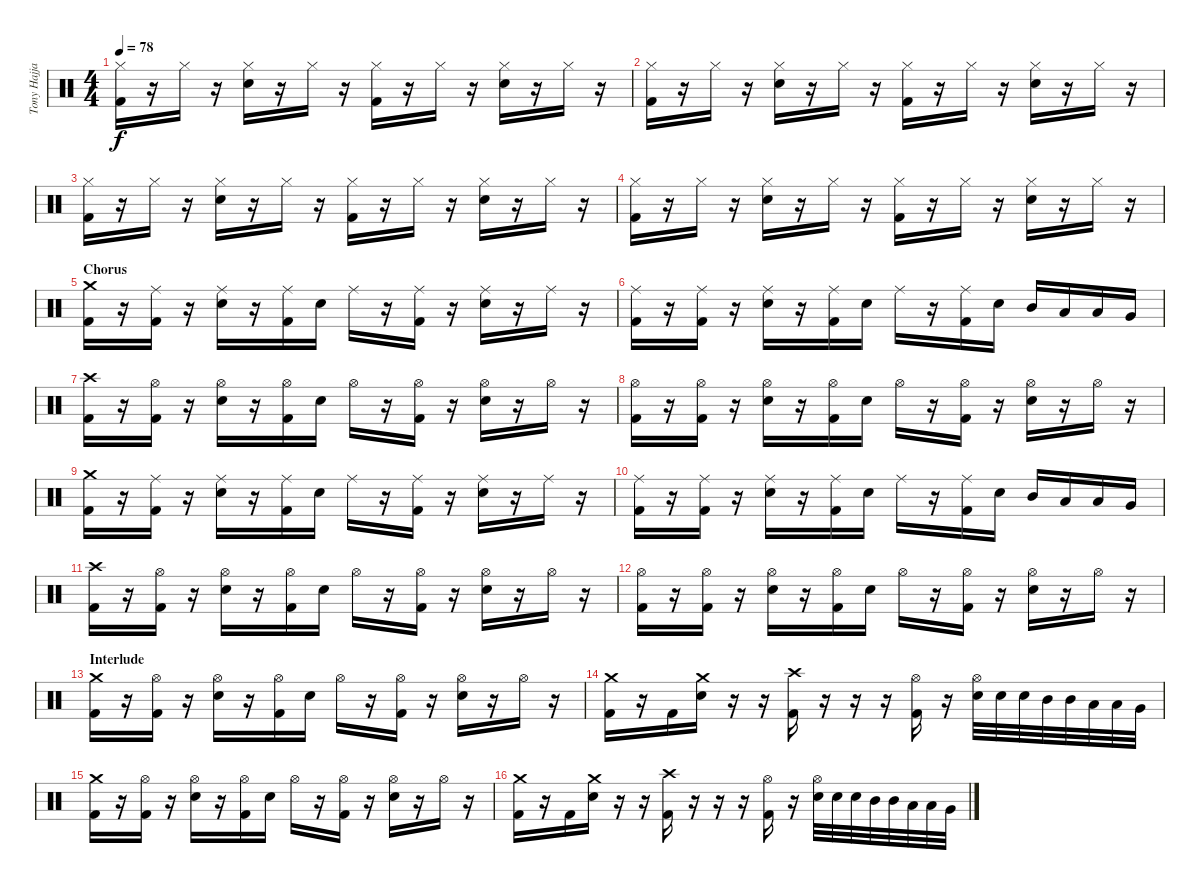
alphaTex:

\track ("Tony Hajjar" "Tony Hajja") {instrument percussion}
\staff {score}
\articulation defaults
\ts (4 4)
\tempo 78
\clef neutral
\ks c
("Hi-Hat (closed)" "Kick (hit) 2").16{dy f} r.16 "Hi-Hat (closed)".16 r.16 ("Hi-Hat (closed)" "Electric Snare (hit)").16 r.16 "Hi-Hat (closed)".16 r.16 ("Hi-Hat (closed)" "Kick (hit) 2").16 r.16 "Hi-Hat (closed)".16 r.16 ("Hi-Hat (closed)" "Electric Snare (hit)").16 r.16 "Hi-Hat (closed)".16 r.16 |
("Hi-Hat (closed)" "Kick (hit) 2").16 r.16 "Hi-Hat (closed)".16 r.16 ("Hi-Hat (closed)" "Electric Snare (hit)").16 r.16 "Hi-Hat (closed)".16 r.16 ("Hi-Hat (closed)" "Kick (hit) 2").16 r.16 "Hi-Hat (closed)".16 r.16 ("Hi-Hat (closed)" "Electric Snare (hit)").16 r.16 "Hi-Hat (closed)".16 r.16 |
("Hi-Hat (closed)" "Kick (hit) 2").16 r.16 "Hi-Hat (closed)".16 r.16 ("Hi-Hat (closed)" "Electric Snare (hit)").16 r.16 "Hi-Hat (closed)".16 r.16 ("Hi-Hat (closed)" "Kick (hit) 2").16 r.16 "Hi-Hat (closed)".16 r.16 ("Hi-Hat (closed)" "Electric Snare (hit)").16 r.16 "Hi-Hat (closed)".16 r.16 |
("Hi-Hat (closed)" "Kick (hit) 2").16 r.16 "Hi-Hat (closed)".16 r.16 ("Hi-Hat (closed)" "Electric Snare (hit)").16 r.16 "Hi-Hat (closed)".16 r.16 ("Hi-Hat (closed)" "Kick (hit) 2").16 r.16 "Hi-Hat (closed)".16 r.16 ("Hi-Hat (closed)" "Electric Snare (hit)").16 r.16 "Hi-Hat (closed)".16 r.16 |
\section ("" "Chorus")
("Crash medium (hit)" "Kick (hit) 2").16 r.16 ("Ride (middle)" "Kick (hit) 2").16 r.16 ("Ride (middle)" "Electric Snare (hit)").16 r.16 ("Ride (middle)" "Kick (hit) 2").16 "Electric Snare (hit)".16 "Ride (middle)".16 r.16 ("Ride (middle)" "Kick (hit) 2").16 r.16 ("Ride (middle)" "Electric Snare (hit)").16 r.16 "Ride (middle)".16 r.16 |
("Ride (middle)" "Kick (hit) 2").16 r.16 ("Ride (middle)" "Kick (hit) 2").16 r.16 ("Ride (middle)" "Electric Snare (hit)").16 r.16 ("Ride (middle)" "Kick (hit) 2").16 "Electric Snare (hit)".16 "Ride (middle)".16 r.16 ("Ride (middle)" "Kick (hit) 2").16 "Electric Snare (hit)".16 "Mid Tom (hit)".16 "Low Tom (hit)".16 "Low Tom (hit)".16 "Very Low Tom (hit)".16 |
("Crash high (hit)" "Kick (hit) 2").16 r.16 ("Hi-Hat (open)" "Kick (hit) 2").16 r.16 ("Hi-Hat (open)" "Electric Snare (hit)").16 r.16 ("Hi-Hat (open)" "Kick (hit) 2").16 "Electric Snare (hit)".16 "Hi-Hat (open)".16 r.16 ("Hi-Hat (open)" "Kick (hit) 2").16 r.16 ("Hi-Hat (open)" "Electric Snare (hit)").16 r.16 "Hi-Hat (open)".16 r.16 |
("Hi-Hat (open)" "Kick (hit) 2").16 r.16 ("Hi-Hat (open)" "Kick (hit) 2").16 r.16 ("Hi-Hat (open)" "Electric Snare (hit)").16 r.16 ("Hi-Hat (open)" "Kick (hit) 2").16 "Electric Snare (hit)".16 "Hi-Hat (open)".16 r.16 ("Hi-Hat (open)" "Kick (hit) 2").16 r.16 ("Hi-Hat (open)" "Electric Snare (hit)").16 r.16 "Hi-Hat (open)".16 r.16 |
("Crash medium (hit)" "Kick (hit) 2").16 r.16 ("Ride (middle)" "Kick (hit) 2").16 r.16 ("Ride (middle)" "Electric Snare (hit)").16 r.16 ("Ride (middle)" "Kick (hit) 2").16 "Electric Snare (hit)".16 "Ride (middle)".16 r.16 ("Ride (middle)" "Kick (hit) 2").16 r.16 ("Ride (middle)" "Electric Snare (hit)").16 r.16 "Ride (middle)".16 r.16 |
("Ride (middle)" "Kick (hit) 2").16 r.16 ("Ride (middle)" "Kick (hit) 2").16 r.16 ("Ride (middle)" "Electric Snare (hit)").16 r.16 ("Ride (middle)" "Kick (hit) 2").16 "Electric Snare (hit)".16 "Ride (middle)".16 r.16 ("Ride (middle)" "Kick (hit) 2").16 "Electric Snare (hit)".16 "Mid Tom (hit)".16 "Low Tom (hit)".16 "Low Tom (hit)".16 "Very Low Tom (hit)".16 |
("Crash high (hit)" "Kick (hit) 2").16 r.16 ("Hi-Hat (open)" "Kick (hit) 2").16 r.16 ("Hi-Hat (open)" "Electric Snare (hit)").16 r.16 ("Hi-Hat (open)" "Kick (hit) 2").16 "Electric Snare (hit)".16 "Hi-Hat (open)".16 r.16 ("Hi-Hat (open)" "Kick (hit) 2").16 r.16 ("Hi-Hat (open)" "Electric Snare (hit)").16 r.16 "Hi-Hat (open)".16 r.16 |
("Hi-Hat (open)" "Kick (hit) 2").16 r.16 ("Hi-Hat (open)" "Kick (hit) 2").16 r.16 ("Hi-Hat (open)" "Electric Snare (hit)").16 r.16 ("Hi-Hat (open)" "Kick (hit) 2").16 "Electric Snare (hit)".16 "Hi-Hat (open)".16 r.16 ("Hi-Hat (open)" "Kick (hit) 2").16 r.16 ("Hi-Hat (open)" "Electric Snare (hit)").16 r.16 "Hi-Hat (open)".16 r.16 |
\section ("" "Interlude")
("Crash medium (hit)" "Kick (hit) 2").16 r.16 ("Hi-Hat (open)" "Kick (hit) 2").16 r.16 ("Hi-Hat (open)" "Electric Snare (hit)").16 r.16 ("Hi-Hat (open)" "Kick (hit) 2").16 "Electric Snare (hit)".16 "Hi-Hat (open)".16 r.16 ("Hi-Hat (open)" "Kick (hit) 2").16 r.16 ("Hi-Hat (open)" "Electric Snare (hit)").16 r.16 "Hi-Hat (open)".16 r.16 |
("Crash medium (hit)" "Kick (hit) 2").16 r.16 "Kick (hit) 2".16 ("Crash medium (hit)" "Electric Snare (hit)").16 r.16 r.16 ("Crash high (hit)" "Kick (hit) 2").16 r.16 r.16 r.16 ("Hi-Hat (open)" "Kick (hit) 2").16 r.16 ("Hi-Hat (open)" "Electric Snare (hit)").32 "Electric Snare (hit)".32 "Electric Snare (hit)".32 "Mid Tom (hit)".32 "Mid Tom (hit)".32 "Low Tom (hit)".32 "Low Tom (hit)".32 "Very Low Tom (hit)".32 |
("Crash medium (hit)" "Kick (hit) 2").16 r.16 ("Hi-Hat (open)" "Kick (hit) 2").16 r.16 ("Hi-Hat (open)" "Electric Snare (hit)").16 r.16 ("Hi-Hat (open)" "Kick (hit) 2").16 "Electric Snare (hit)".16 "Hi-Hat (open)".16 r.16 ("Hi-Hat (open)" "Kick (hit) 2").16 r.16 ("Hi-Hat (open)" "Electric Snare (hit)").16 r.16 "Hi-Hat (open)".16 r.16 |
("Crash medium (hit)" "Kick (hit) 2").16 r.16 "Kick (hit) 2".16 ("Crash medium (hit)" "Electric Snare (hit)").16 r.16 r.16 ("Crash high (hit)" "Kick (hit) 2").16 r.16 r.16 r.16 ("Hi-Hat (open)" "Kick (hit) 2").16 r.16 ("Hi-Hat (open)" "Electric Snare (hit)").32 "Electric Snare (hit)".32 "Electric Snare (hit)".32 "Mid Tom (hit)".32 "Mid Tom (hit)".32 "Low Tom (hit)".32 "Low Tom (hit)".32 "Very Low Tom (hit)".32
